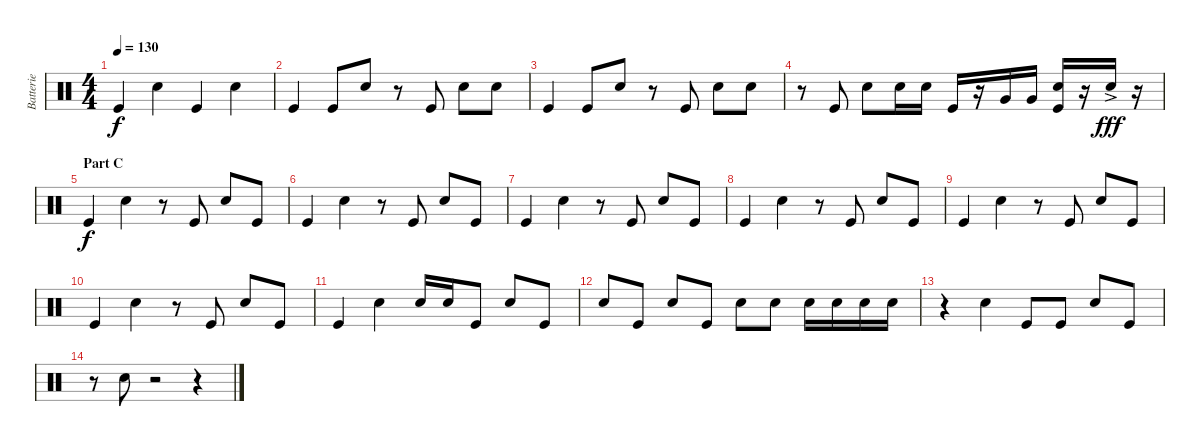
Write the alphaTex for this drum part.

\track ("Batterie" "Batterie") {instrument percussion}
\staff {score}
\articulation defaults
\ts (4 4)
\tempo 130
\clef neutral
\ks c "Kick (hit)".4{dy f} "Electric Snare (hit)".4 "Kick (hit)".4 "Electric Snare (hit)".4
|
"Kick (hit)".4 "Kick (hit)".8 "Electric Snare (hit)".8 r.8 "Kick (hit)".8 "Electric Snare (hit)".8 "Electric Snare (hit)".8 |
"Kick (hit)".4 "Kick (hit)".8 "Electric Snare (hit)".8 r.8 "Kick (hit)".8 "Electric Snare (hit)".8 "Electric Snare (hit)".8 |
r.8 "Kick (hit)".8 "Electric Snare (hit)".8 "Electric Snare (hit)".16 "Electric Snare (hit)".16 "Kick (hit)".16 r.16 "Very Low Tom (hit)".16 "Very Low Tom (hit)".16 ("Electric Snare (hit)" "Kick (hit)").16 r.16 "Electric Snare (hit)"{ac}.16{dy fff} r.16 |
\section ("" "Part C")
"Kick (hit)".4{dy f} "Electric Snare (hit)".4 r.8 "Kick (hit)".8 "Electric Snare (hit)".8 "Kick (hit)".8 |
"Kick (hit)".4 "Electric Snare (hit)".4 r.8 "Kick (hit)".8 "Electric Snare (hit)".8 "Kick (hit)".8 |
"Kick (hit)".4 "Electric Snare (hit)".4 r.8 "Kick (hit)".8 "Electric Snare (hit)".8 "Kick (hit)".8 |
"Kick (hit)".4 "Electric Snare (hit)".4 r.8 "Kick (hit)".8 "Electric Snare (hit)".8 "Kick (hit)".8 |
"Kick (hit)".4 "Electric Snare (hit)".4 r.8 "Kick (hit)".8 "Electric Snare (hit)".8 "Kick (hit)".8 |
"Kick (hit)".4 "Electric Snare (hit)".4 r.8 "Kick (hit)".8 "Electric Snare (hit)".8 "Kick (hit)".8 |
"Kick (hit)".4 "Electric Snare (hit)".4 "Electric Snare (hit)".16 "Electric Snare (hit)".16 "Kick (hit)".8 "Electric Snare (hit)".8 "Kick (hit)".8 |
"Electric Snare (hit)".8 "Kick (hit)".8 "Electric Snare (hit)".8 "Kick (hit)".8 "Electric Snare (hit)".8 "Electric Snare (hit)".8 "Electric Snare (hit)".16 "Electric Snare (hit)".16 "Electric Snare (hit)".16 "Electric Snare (hit)".16 |
r.4 "Electric Snare (hit)".4 "Kick (hit)".8 "Kick (hit)".8 "Electric Snare (hit)".8 "Kick (hit)".8 |
r.8 "Electric Snare (hit)".8 r.2 r.4
